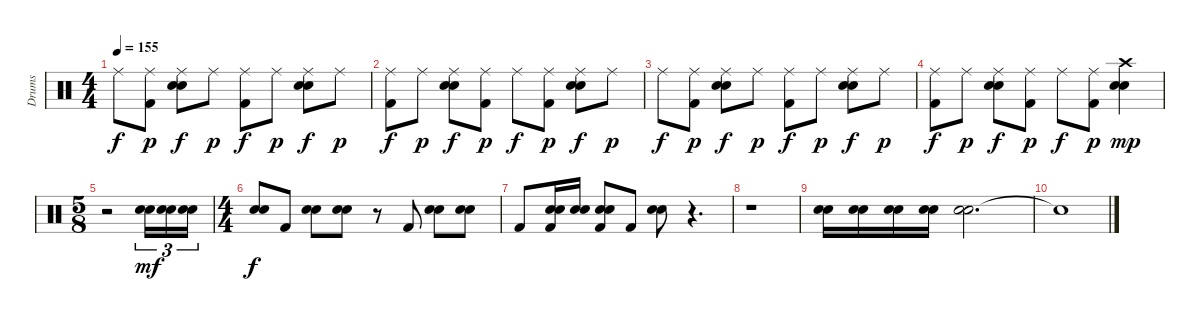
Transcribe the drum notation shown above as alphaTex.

\track ("Drums" "Drums") {instrument percussion}
\staff {score}
\articulation defaults
\ts (4 4)
\tempo 155
\clef neutral
\ks c "Ride (middle)".8{dy f}
("Ride (middle)" "Kick (hit) 2").8{dy p} ("Ride (middle)" "Snare (hit) 2" "Electric Snare (hit)").8{dy f} "Ride (middle)".8{dy p} ("Ride (middle)" "Kick (hit) 2").8{dy f} "Ride (middle)".8{dy p} ("Ride (middle)" "Snare (hit) 2" "Electric Snare (hit)").8{dy f} "Ride (middle)".8{dy p} |
("Ride (middle)" "Kick (hit) 2").8{dy f} "Ride (middle)".8{dy p} ("Ride (middle)" "Snare (hit) 2" "Electric Snare (hit)").8{dy f} ("Ride (middle)" "Kick (hit) 2").8{dy p} "Ride (middle)".8{dy f} ("Ride (middle)" "Kick (hit) 2").8{dy p} ("Ride (middle)" "Snare (hit) 2" "Electric Snare (hit)").8{dy f} "Ride (middle)".8{dy p} |
"Ride (middle)".8{dy f} ("Ride (middle)" "Kick (hit) 2").8{dy p} ("Ride (middle)" "Snare (hit) 2" "Electric Snare (hit)").8{dy f} "Ride (middle)".8{dy p} ("Ride (middle)" "Kick (hit) 2").8{dy f} "Ride (middle)".8{dy p} ("Ride (middle)" "Snare (hit) 2" "Electric Snare (hit)").8{dy f} "Ride (middle)".8{dy p} |
("Ride (middle)" "Kick (hit) 2").8{dy f} "Ride (middle)".8{dy p} ("Ride (middle)" "Snare (hit) 2" "Electric Snare (hit)").8{dy f} ("Ride (middle)" "Kick (hit) 2").8{dy p} "Ride (middle)".8{dy f} ("Ride (middle)" "Kick (hit) 2").8{dy p} ("Crash high (hit)" "Snare (hit) 2" "Electric Snare (hit)").4{dy mp} |
\ts (5 8)
r.2 ("Snare (hit) 2" "Electric Snare (hit)").16{tu (3 2) dy mf} ("Snare (hit) 2" "Electric Snare (hit)").16{tu (3 2)} ("Snare (hit) 2" "Electric Snare (hit)").16{tu (3 2)} |
\ts (4 4)
("Snare (hit) 2" "Electric Snare (hit)").8{dy f} "Kick (hit) 2".8 ("Snare (hit) 2" "Electric Snare (hit)").8 ("Snare (hit) 2" "Electric Snare (hit)").8 r.8 "Kick (hit) 2".8 ("Snare (hit) 2" "Electric Snare (hit)").8 ("Snare (hit) 2" "Electric Snare (hit)").8 |
"Kick (hit) 2".8 ("Snare (hit) 2" "Electric Snare (hit)" "Kick (hit) 2").16 ("Snare (hit) 2" "Electric Snare (hit)").16 ("Snare (hit) 2" "Electric Snare (hit)" "Kick (hit) 2").8 "Kick (hit) 2".8 ("Snare (hit) 2" "Electric Snare (hit)").8 r.4{d} |
r.1 |
("Snare (hit) 2" "Electric Snare (hit)").16 ("Snare (hit) 2" "Electric Snare (hit)").16 ("Snare (hit) 2" "Electric Snare (hit)").16 ("Snare (hit) 2" "Electric Snare (hit)").16 ("Snare (hit) 2" "Electric Snare (hit)").2{d} |
"Snare (hit)"{t}.1
